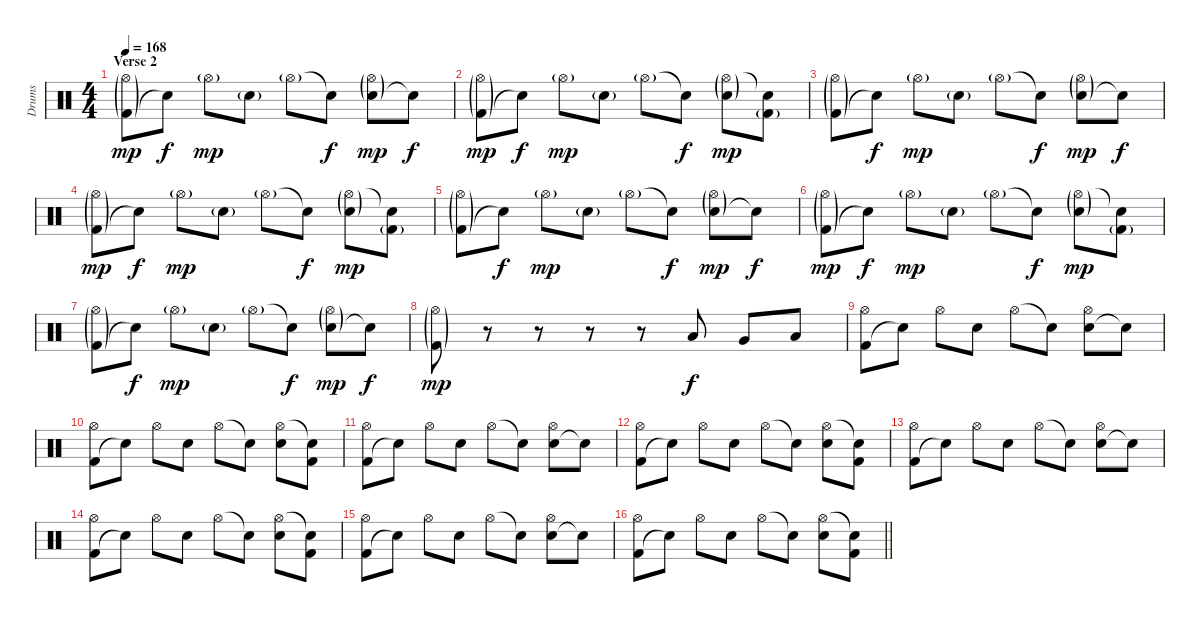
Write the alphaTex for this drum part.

\track ("Drums" "Drums") {instrument percussion}
\staff {score}
\articulation defaults
\ts (4 4)
\section ("" "Verse 2")
\tempo 168
\clef neutral
\ks c
("Kick (hit) 2"{g} "Hi-Hat (open)"{g}).8{dy mp} "Snare (hit)"{t}.8{dy f} "Hi-Hat (open)"{g}.8{dy mp} "Electric Snare (hit)"{g}.8 "Hi-Hat (open)"{g}.8 "Snare (hit)"{t}.8{dy f} ("Electric Snare (hit)"{g} "Hi-Hat (open)"{g}).8{dy mp} "Snare (hit)"{t}.8{dy f} |
("Kick (hit) 2"{g} "Hi-Hat (open)"{g}).8{dy mp} "Snare (hit)"{t}.8{dy f} "Hi-Hat (open)"{g}.8{dy mp} "Electric Snare (hit)"{g}.8 "Hi-Hat (open)"{g}.8 "Snare (hit)"{t}.8{dy f} ("Electric Snare (hit)"{g} "Hi-Hat (open)"{g}).8{dy mp} ("Kick (hit) 2"{g} "Snare (hit)"{t}).8 |
("Kick (hit) 2"{g} "Hi-Hat (open)"{g}).8 "Snare (hit)"{t}.8{dy f} "Hi-Hat (open)"{g}.8{dy mp} "Electric Snare (hit)"{g}.8 "Hi-Hat (open)"{g}.8 "Snare (hit)"{t}.8{dy f} ("Electric Snare (hit)"{g} "Hi-Hat (open)"{g}).8{dy mp} "Snare (hit)"{t}.8{dy f} |
("Kick (hit) 2"{g} "Hi-Hat (open)"{g}).8{dy mp} "Snare (hit)"{t}.8{dy f} "Hi-Hat (open)"{g}.8{dy mp} "Electric Snare (hit)"{g}.8 "Hi-Hat (open)"{g}.8 "Snare (hit)"{t}.8{dy f} ("Electric Snare (hit)"{g} "Hi-Hat (open)"{g}).8{dy mp} ("Kick (hit) 2"{g} "Snare (hit)"{t}).8 |
("Kick (hit) 2"{g} "Hi-Hat (open)"{g}).8 "Snare (hit)"{t}.8{dy f} "Hi-Hat (open)"{g}.8{dy mp} "Electric Snare (hit)"{g}.8 "Hi-Hat (open)"{g}.8 "Snare (hit)"{t}.8{dy f} ("Electric Snare (hit)"{g} "Hi-Hat (open)"{g}).8{dy mp} "Snare (hit)"{t}.8{dy f} |
("Kick (hit) 2"{g} "Hi-Hat (open)"{g}).8{dy mp} "Snare (hit)"{t}.8{dy f} "Hi-Hat (open)"{g}.8{dy mp} "Electric Snare (hit)"{g}.8 "Hi-Hat (open)"{g}.8 "Snare (hit)"{t}.8{dy f} ("Electric Snare (hit)"{g} "Hi-Hat (open)"{g}).8{dy mp} ("Kick (hit) 2"{g} "Snare (hit)"{t}).8 |
("Kick (hit) 2"{g} "Hi-Hat (open)"{g}).8 "Snare (hit)"{t}.8{dy f} "Hi-Hat (open)"{g}.8{dy mp} "Electric Snare (hit)"{g}.8 "Hi-Hat (open)"{g}.8 "Snare (hit)"{t}.8{dy f} ("Electric Snare (hit)"{g} "Hi-Hat (open)"{g}).8{dy mp} "Snare (hit)"{t}.8{dy f} |
("Kick (hit) 2"{g} "Hi-Hat (open)"{g}).8{dy mp} r.8 r.8 r.8 r.8 "Low Tom (hit)".8{dy f} "Very Low Tom (hit)".8 "Low Floor Tom (hit)".8 |
("Kick (hit) 2" "Hi-Hat (open)").8 "Snare (hit)"{t}.8 "Hi-Hat (open)".8 "Electric Snare (hit)".8 "Hi-Hat (open)".8 "Snare (hit)"{t}.8 ("Electric Snare (hit)" "Hi-Hat (open)").8 "Snare (hit)"{t}.8 |
("Kick (hit) 2" "Hi-Hat (open)").8 "Snare (hit)"{t}.8 "Hi-Hat (open)".8 "Electric Snare (hit)".8 "Hi-Hat (open)".8 "Snare (hit)"{t}.8 ("Electric Snare (hit)" "Hi-Hat (open)").8 ("Kick (hit) 2" "Snare (hit)"{t}).8 |
("Kick (hit) 2" "Hi-Hat (open)").8 "Snare (hit)"{t}.8 "Hi-Hat (open)".8 "Electric Snare (hit)".8 "Hi-Hat (open)".8 "Snare (hit)"{t}.8 ("Electric Snare (hit)" "Hi-Hat (open)").8 "Snare (hit)"{t}.8 |
("Kick (hit) 2" "Hi-Hat (open)").8 "Snare (hit)"{t}.8 "Hi-Hat (open)".8 "Electric Snare (hit)".8 "Hi-Hat (open)".8 "Snare (hit)"{t}.8 ("Electric Snare (hit)" "Hi-Hat (open)").8 ("Kick (hit) 2" "Snare (hit)"{t}).8 |
("Kick (hit) 2" "Hi-Hat (open)").8 "Snare (hit)"{t}.8 "Hi-Hat (open)".8 "Electric Snare (hit)".8 "Hi-Hat (open)".8 "Snare (hit)"{t}.8 ("Electric Snare (hit)" "Hi-Hat (open)").8 "Snare (hit)"{t}.8 |
("Kick (hit) 2" "Hi-Hat (open)").8 "Snare (hit)"{t}.8 "Hi-Hat (open)".8 "Electric Snare (hit)".8 "Hi-Hat (open)".8 "Snare (hit)"{t}.8 ("Electric Snare (hit)" "Hi-Hat (open)").8 ("Kick (hit) 2" "Snare (hit)"{t}).8 |
("Kick (hit) 2" "Hi-Hat (open)").8 "Snare (hit)"{t}.8 "Hi-Hat (open)".8 "Electric Snare (hit)".8 "Hi-Hat (open)".8 "Snare (hit)"{t}.8 ("Electric Snare (hit)" "Hi-Hat (open)").8 "Snare (hit)"{t}.8 |
\barLineRight lightlight
("Kick (hit) 2" "Hi-Hat (open)").8 "Snare (hit)"{t}.8 "Hi-Hat (open)".8 "Electric Snare (hit)".8 "Hi-Hat (open)".8 "Snare (hit)"{t}.8 ("Electric Snare (hit)" "Hi-Hat (open)").8 ("Kick (hit) 2" "Snare (hit)"{t}).8
